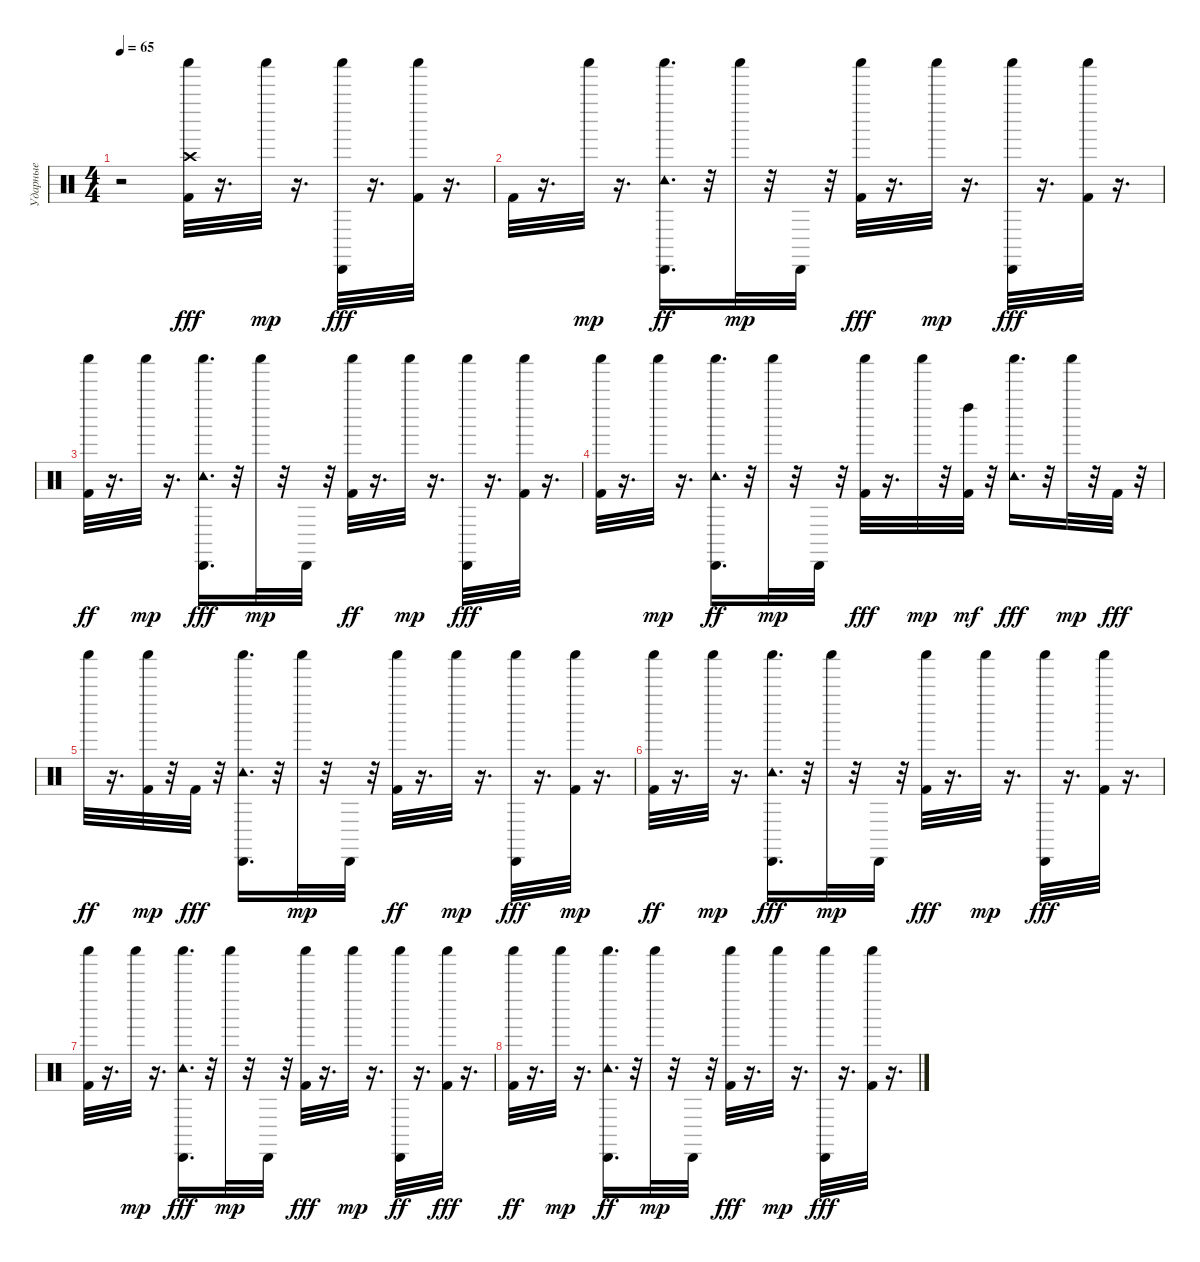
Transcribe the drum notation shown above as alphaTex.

\track ("Ударные" "Ударные") {instrument percussion}
\staff {score}
\articulation defaults
\ts (4 4)
\tempo 65
\clef neutral
\ks c
r.2{dy ff} ("Shaker (hit)" "Kick (hit) 2" "Crash high (hit)").32{dy fff} r.16{d} "Shaker (hit)".32{dy mp} r.16{d} ("Cabasa (hit)" "Shaker (hit)").32{dy fff} r.16{d} ("Shaker (hit)" "Kick (hit) 2").32 r.16{d} |
"Kick (hit) 2".32 r.16{d} "Shaker (hit)".32{dy mp} r.16{d} ("Shaker (hit)" "Tambourine (hit)" "Cabasa (hit)").16{d dy ff} r.32 "Shaker (hit)".32{dy mp} r.32 "Cabasa (hit)".32 r.32 ("Shaker (hit)" "Kick (hit) 2").32{dy fff} r.16{d} "Shaker (hit)".32{dy mp} r.16{d} ("Shaker (hit)" "Cabasa (hit)").32{dy fff} r.16{d} ("Shaker (hit)" "Kick (hit) 2").32 r.16{d} |
("Kick (hit) 2" "Shaker (hit)").32{dy ff} r.16{d} "Shaker (hit)".32{dy mp} r.16{d} ("Shaker (hit)" "Cabasa (hit)" "Tambourine (hit)").16{d dy fff} r.32 "Shaker (hit)".32{dy mp} r.32 "Cabasa (hit)".32 r.32 ("Kick (hit) 2" "Shaker (hit)").32{dy ff} r.16{d} "Shaker (hit)".32{dy mp} r.16{d} ("Cabasa (hit)" "Shaker (hit)").32{dy fff} r.16{d} ("Shaker (hit)" "Kick (hit) 2").32 r.16{d} |
("Shaker (hit)" "Kick (hit) 2").32 r.16{d} "Shaker (hit)".32{dy mp} r.16{d} ("Tambourine (hit)" "Shaker (hit)" "Cabasa (hit)").16{d dy ff} r.32 "Shaker (hit)".32{dy mp} r.32 "Cabasa (hit)".32 r.32 ("Kick (hit) 2" "Shaker (hit)").32{dy fff} r.16{d} "Shaker (hit)".32{dy mp} r.32 ("Kick (hit) 2" "Left Maraca (hit)").32{dy mf} r.32 ("Tambourine (hit)" "Shaker (hit)").16{d dy fff} r.32 "Shaker (hit)".32{dy mp} r.32 "Kick (hit) 2".32{dy fff} r.32 |
"Shaker (hit)".32{dy ff} r.16{d} ("Kick (hit) 2" "Shaker (hit)").32{dy mp} r.32 "Kick (hit) 2".32{dy fff} r.32 ("Cabasa (hit)" "Shaker (hit)" "Tambourine (hit)").16{d} r.32 "Shaker (hit)".32{dy mp} r.32 "Cabasa (hit)".32 r.32 ("Kick (hit) 2" "Shaker (hit)").32{dy ff} r.16{d} "Shaker (hit)".32{dy mp} r.16{d} ("Cabasa (hit)" "Shaker (hit)").32{dy fff} r.16{d} ("Kick (hit) 2" "Shaker (hit)").32{dy mp} r.16{d} |
("Kick (hit) 2" "Shaker (hit)").32{dy ff} r.16{d} "Shaker (hit)".32{dy mp} r.16{d} ("Tambourine (hit)" "Cabasa (hit)" "Shaker (hit)").16{d dy fff} r.32 "Shaker (hit)".32{dy mp} r.32 "Cabasa (hit)".32 r.32 ("Shaker (hit)" "Kick (hit) 2").32{dy fff} r.16{d} "Shaker (hit)".32{dy mp} r.16{d} ("Shaker (hit)" "Cabasa (hit)").32{dy fff} r.16{d} ("Shaker (hit)" "Kick (hit) 2").32 r.16{d} |
("Shaker (hit)" "Kick (hit) 2").32 r.16{d} "Shaker (hit)".32{dy mp} r.16{d} ("Shaker (hit)" "Cabasa (hit)" "Tambourine (hit)").16{d dy fff} r.32 "Shaker (hit)".32{dy mp} r.32 "Cabasa (hit)".32 r.32 ("Shaker (hit)" "Kick (hit) 2").32{dy fff} r.16{d} "Shaker (hit)".32{dy mp} r.16{d} ("Shaker (hit)" "Cabasa (hit)").32{dy ff} r.16{d} ("Shaker (hit)" "Kick (hit) 2").32{dy fff} r.16{d} |
("Kick (hit) 2" "Shaker (hit)").32{dy ff} r.16{d} "Shaker (hit)".32{dy mp} r.16{d} ("Shaker (hit)" "Tambourine (hit)" "Cabasa (hit)").16{d dy ff} r.32 "Shaker (hit)".32{dy mp} r.32 "Cabasa (hit)".32 r.32 ("Shaker (hit)" "Kick (hit) 2").32{dy fff} r.16{d} "Shaker (hit)".32{dy mp} r.16{d} ("Cabasa (hit)" "Shaker (hit)").32{dy fff} r.16{d} ("Shaker (hit)" "Kick (hit) 2").32 r.16{d}
